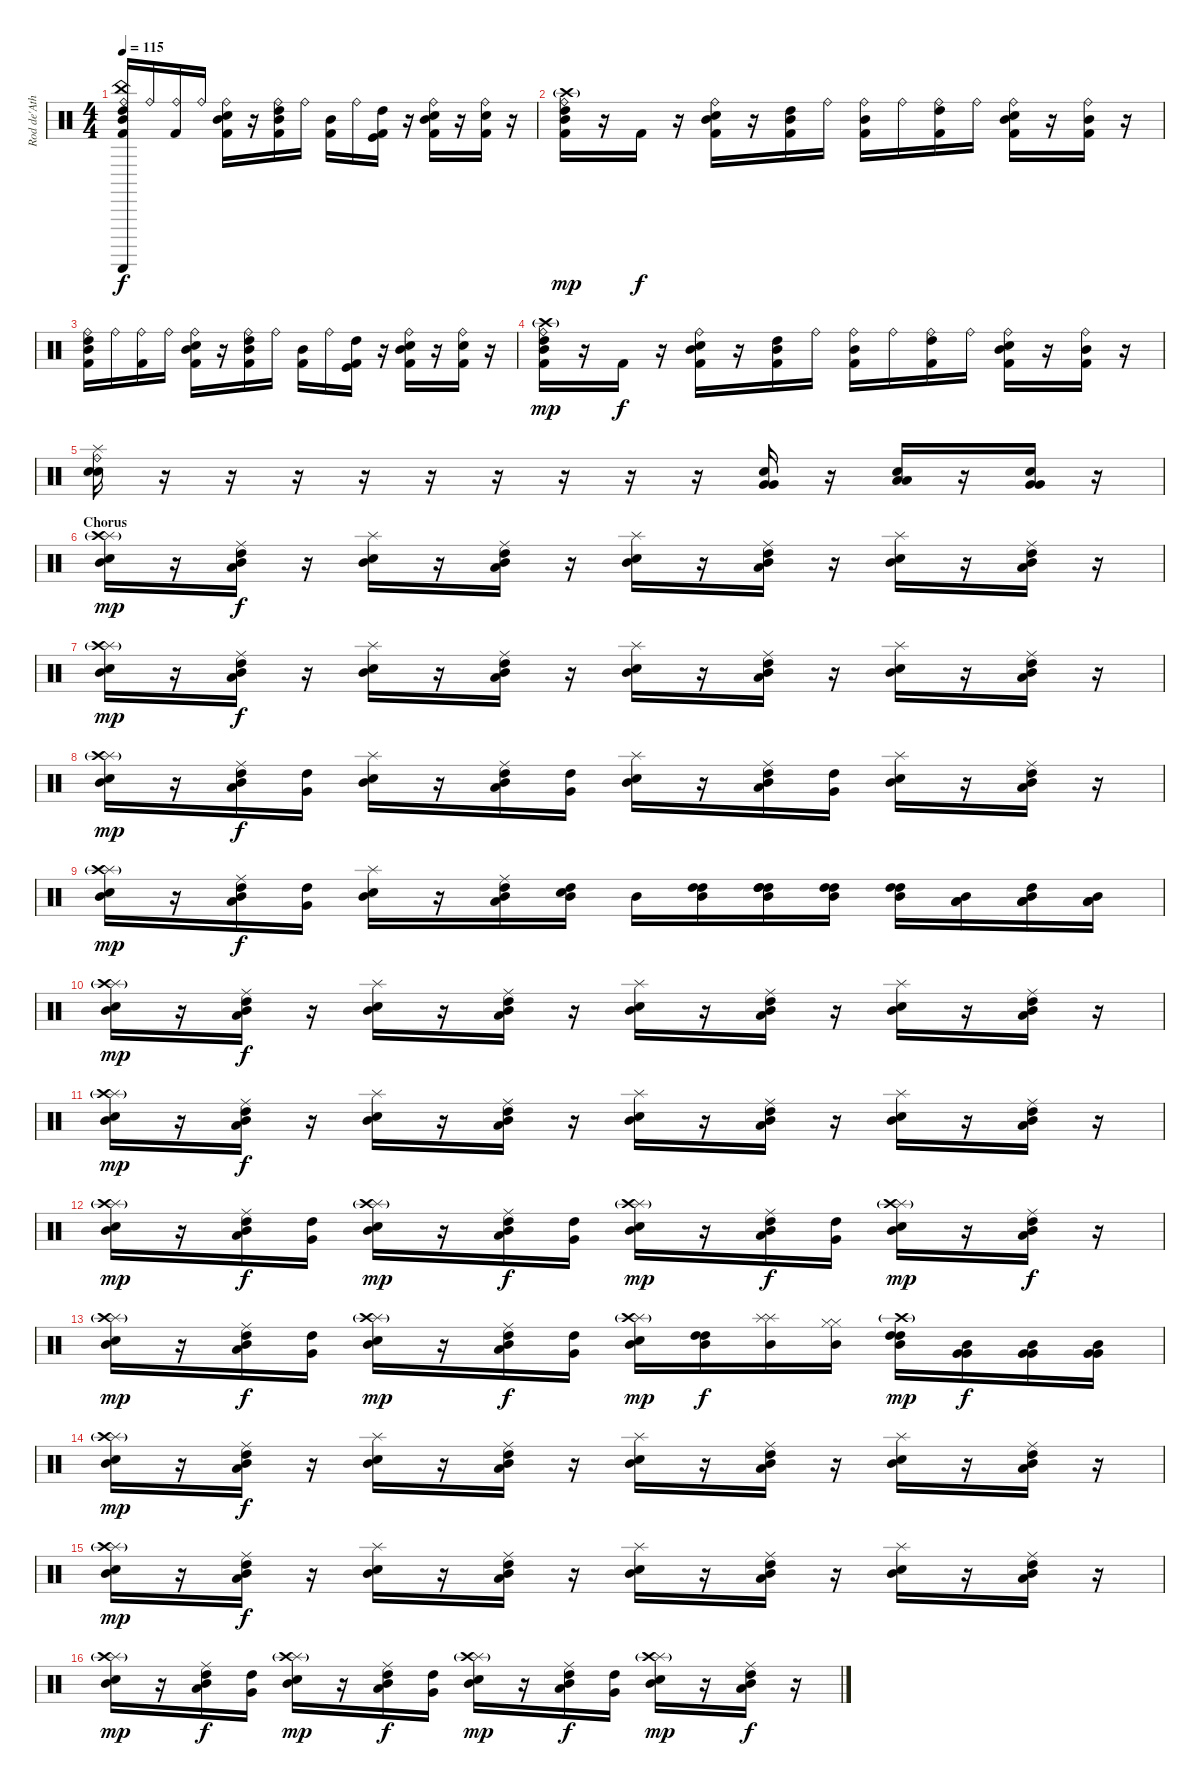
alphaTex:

\track ("Rod de'Ath" "Rod de'Ath") {instrument percussion}
\staff {score}
\articulation defaults
\ts (4 4)
\tempo 115
\clef neutral
\ks c
("Ride (bell)" "China (hit)" "High Tom (hit)" "Mid Tom (hit)" "Kick (hit) 2" "Guiro (scrap-return)").16{dy f} "Ride (bell)".16 ("Ride (bell)" "Kick (hit) 2").16 "Ride (bell)".16 ("Ride (bell)" "Snare (hit) 2" "Mid Tom (hit)" "Kick (hit) 2").16 r.16 ("Ride (bell)" "High Tom (hit)" "Mid Tom (hit)" "Kick (hit) 2").16 "Ride (bell)".16 ("Mid Tom (hit)" "Kick (hit) 2").16 "Ride (bell)".16 ("Kick (hit)" "High Tom (hit)" "Kick (hit) 2").16 r.16 ("Ride (bell)" "Snare (hit) 2" "Mid Tom (hit)" "Kick (hit) 2").16 r.16 ("Ride (bell)" "Electric Snare (hit)" "Kick (hit) 2").16 r.16 |
("Ride (bell)" "High Tom (hit)" "Mid Tom (hit)" "Kick (hit) 2" "Crash high (hit)"{g}).16{dy mp} r.16 "Kick (hit) 2".16{dy f} r.16 ("Ride (bell)" "Snare (hit) 2" "Mid Tom (hit)" "Kick (hit) 2").16 r.16 ("High Tom (hit)" "Mid Tom (hit)" "Kick (hit) 2").16 "Ride (bell)".16 ("Ride (bell)" "Mid Tom (hit)" "Kick (hit) 2").16 "Ride (bell)".16 ("Ride (bell)" "High Tom (hit)" "Kick (hit) 2").16 "Ride (bell)".16 ("Ride (bell)" "Snare (hit) 2" "Mid Tom (hit)" "Kick (hit) 2").16 r.16 ("Ride (bell)" "Mid Tom (hit)" "Kick (hit) 2").16 r.16 |
("Ride (bell)" "High Tom (hit)" "Mid Tom (hit)" "Kick (hit) 2").16 "Ride (bell)".16 ("Ride (bell)" "Kick (hit) 2").16 "Ride (bell)".16 ("Ride (bell)" "Snare (hit) 2" "Mid Tom (hit)" "Kick (hit) 2").16 r.16 ("Ride (bell)" "High Tom (hit)" "Mid Tom (hit)" "Kick (hit) 2").16 "Ride (bell)".16 ("Mid Tom (hit)" "Kick (hit) 2").16 "Ride (bell)".16 ("Kick (hit)" "High Tom (hit)" "Kick (hit) 2").16 r.16 ("Ride (bell)" "Snare (hit) 2" "Mid Tom (hit)" "Kick (hit) 2").16 r.16 ("Ride (bell)" "Electric Snare (hit)" "Kick (hit) 2").16 r.16 |
("Ride (bell)" "High Tom (hit)" "Mid Tom (hit)" "Kick (hit) 2" "Crash high (hit)"{g}).16{dy mp} r.16 "Kick (hit) 2".16{dy f} r.16 ("Ride (bell)" "Snare (hit) 2" "Mid Tom (hit)" "Kick (hit) 2").16 r.16 ("High Tom (hit)" "Mid Tom (hit)" "Kick (hit) 2").16 "Ride (bell)".16 ("Ride (bell)" "Mid Tom (hit)" "Kick (hit) 2").16 "Ride (bell)".16 ("Ride (bell)" "High Tom (hit)" "Kick (hit) 2").16 "Ride (bell)".16 ("Ride (bell)" "Snare (hit) 2" "Mid Tom (hit)" "Kick (hit) 2").16 r.16 ("Ride (bell)" "Mid Tom (hit)" "Kick (hit) 2").16 r.16 |
("Ride (bell)" "Electric Snare (hit)" "Snare (hit) 2" "Splash (hit)").16 r.16 r.16 r.16 r.16 r.16 r.16 r.16 r.16 r.16 ("Snare (hit) 2" "Very Low Tom (hit)" "Very Low Tom (hit)").16 r.16 ("Electric Snare (hit)" "Low Tom (hit)" "Low Tom (hit)").16 r.16 ("Snare (hit) 2" "Very Low Tom (hit)" "Very Low Tom (hit)").16 r.16 |
\section ("" "Chorus")
("Splash (hit)" "Snare (hit) 2" "Crash high (hit)"{g} "Mid Tom (hit)").16{dy mp} r.16 ("Ride (middle)" "Low Tom (hit)" "High Tom (hit)" "Mid Tom (hit)").16{dy f} r.16 ("Splash (hit)" "Snare (hit) 2" "Mid Tom (hit)").16 r.16 ("Ride (middle)" "Low Tom (hit)" "High Tom (hit)" "Mid Tom (hit)").16 r.16 ("Splash (hit)" "Snare (hit) 2" "Mid Tom (hit)").16 r.16 ("Ride (middle)" "Low Tom (hit)" "High Tom (hit)" "Mid Tom (hit)").16 r.16 ("Splash (hit)" "Snare (hit) 2" "Mid Tom (hit)").16 r.16 ("Ride (middle)" "Low Tom (hit)" "High Tom (hit)" "Mid Tom (hit)").16 r.16 |
("Splash (hit)" "Snare (hit) 2" "Crash high (hit)"{g} "Mid Tom (hit)").16{dy mp} r.16 ("Ride (middle)" "Low Tom (hit)" "High Tom (hit)" "Mid Tom (hit)").16{dy f} r.16 ("Splash (hit)" "Snare (hit) 2" "Mid Tom (hit)").16 r.16 ("Ride (middle)" "Low Tom (hit)" "High Tom (hit)" "Mid Tom (hit)").16 r.16 ("Splash (hit)" "Snare (hit) 2" "Mid Tom (hit)").16 r.16 ("Ride (middle)" "Low Tom (hit)" "High Tom (hit)" "Mid Tom (hit)").16 r.16 ("Splash (hit)" "Snare (hit) 2" "Mid Tom (hit)").16 r.16 ("Ride (middle)" "Low Tom (hit)" "High Tom (hit)" "Mid Tom (hit)").16 r.16 |
("Splash (hit)" "Snare (hit) 2" "Crash high (hit)"{g} "Mid Tom (hit)").16{dy mp} r.16 ("Ride (middle)" "Low Tom (hit)" "High Tom (hit)" "Mid Tom (hit)").16{dy f} ("Very Low Tom (hit)" "High Tom (hit)").16 ("Splash (hit)" "Snare (hit) 2" "Mid Tom (hit)").16 r.16 ("Ride (middle)" "Low Tom (hit)" "High Tom (hit)" "Mid Tom (hit)").16 ("Very Low Tom (hit)" "High Tom (hit)").16 ("Splash (hit)" "Snare (hit) 2" "Mid Tom (hit)").16 r.16 ("Ride (middle)" "Low Tom (hit)" "High Tom (hit)" "Mid Tom (hit)").16 ("Very Low Tom (hit)" "High Tom (hit)").16 ("Splash (hit)" "Snare (hit) 2" "Mid Tom (hit)").16 r.16 ("Ride (middle)" "Low Tom (hit)" "High Tom (hit)" "Mid Tom (hit)").16 r.16 |
("Splash (hit)" "Snare (hit) 2" "Crash high (hit)"{g} "Mid Tom (hit)").16{dy mp} r.16 ("Ride (middle)" "Low Tom (hit)" "High Tom (hit)" "Mid Tom (hit)").16{dy f} ("High Tom (hit)" "Very Low Tom (hit)").16 ("Splash (hit)" "Snare (hit) 2" "Mid Tom (hit)").16 r.16 ("Ride (middle)" "Low Tom (hit)" "High Tom (hit)" "Mid Tom (hit)").16 ("Electric Snare (hit)" "High Tom (hit)" "Mid Tom (hit)").16 "Mid Tom (hit)".16 ("High Tom (hit)" "High Tom (hit)" "Mid Tom (hit)").16 ("High Tom (hit)" "High Tom (hit)" "High Tom (hit)" "Mid Tom (hit)").16 ("High Tom (hit)" "High Tom (hit)" "Mid Tom (hit)").16 ("High Tom (hit)" "High Tom (hit)" "Mid Tom (hit)").16 ("Low Tom (hit)" "Low Tom (hit)" "Mid Tom (hit)").16 ("Low Tom (hit)" "Low Tom (hit)" "High Tom (hit)" "Mid Tom (hit)").16 ("Low Tom (hit)" "Low Tom (hit)" "Mid Tom (hit)").16 |
("Splash (hit)" "Snare (hit) 2" "Crash high (hit)"{g} "Mid Tom (hit)").16{dy mp} r.16 ("Ride (middle)" "Low Tom (hit)" "High Tom (hit)" "Mid Tom (hit)").16{dy f} r.16 ("Splash (hit)" "Snare (hit) 2" "Mid Tom (hit)").16 r.16 ("Ride (middle)" "Low Tom (hit)" "High Tom (hit)" "Mid Tom (hit)").16 r.16 ("Splash (hit)" "Snare (hit) 2" "Mid Tom (hit)").16 r.16 ("Ride (middle)" "Low Tom (hit)" "High Tom (hit)" "Mid Tom (hit)").16 r.16 ("Splash (hit)" "Snare (hit) 2" "Mid Tom (hit)").16 r.16 ("Ride (middle)" "Low Tom (hit)" "High Tom (hit)" "Mid Tom (hit)").16 r.16 |
("Splash (hit)" "Snare (hit) 2" "Crash high (hit)"{g} "Mid Tom (hit)").16{dy mp} r.16 ("Ride (middle)" "Low Tom (hit)" "High Tom (hit)" "Mid Tom (hit)").16{dy f} r.16 ("Splash (hit)" "Snare (hit) 2" "Mid Tom (hit)").16 r.16 ("Ride (middle)" "Low Tom (hit)" "High Tom (hit)" "Mid Tom (hit)").16 r.16 ("Splash (hit)" "Snare (hit) 2" "Mid Tom (hit)").16 r.16 ("Ride (middle)" "Low Tom (hit)" "High Tom (hit)" "Mid Tom (hit)").16 r.16 ("Splash (hit)" "Snare (hit) 2" "Mid Tom (hit)").16 r.16 ("Ride (middle)" "Low Tom (hit)" "High Tom (hit)" "Mid Tom (hit)").16 r.16 |
("Splash (hit)" "Snare (hit) 2" "Crash high (hit)"{g} "Mid Tom (hit)").16{dy mp} r.16 ("Ride (middle)" "Low Tom (hit)" "High Tom (hit)" "Mid Tom (hit)").16{dy f} ("Very Low Tom (hit)" "High Tom (hit)").16 ("Splash (hit)" "Snare (hit) 2" "Crash high (hit)"{g} "Mid Tom (hit)").16{dy mp} r.16 ("Ride (middle)" "Low Tom (hit)" "High Tom (hit)" "Mid Tom (hit)").16{dy f} ("Very Low Tom (hit)" "High Tom (hit)").16 ("Splash (hit)" "Snare (hit) 2" "Crash high (hit)"{g} "Mid Tom (hit)").16{dy mp} r.16 ("Ride (middle)" "Low Tom (hit)" "High Tom (hit)" "Mid Tom (hit)").16{dy f} ("Very Low Tom (hit)" "High Tom (hit)").16 ("Splash (hit)" "Snare (hit) 2" "Crash high (hit)"{g} "Mid Tom (hit)").16{dy mp} r.16 ("Ride (middle)" "Low Tom (hit)" "High Tom (hit)" "Mid Tom (hit)").16{dy f} r.16 |
("Splash (hit)" "Snare (hit) 2" "Crash high (hit)"{g} "Mid Tom (hit)").16{dy mp} r.16 ("Ride (middle)" "Low Tom (hit)" "High Tom (hit)" "Mid Tom (hit)").16{dy f} ("Very Low Tom (hit)" "High Tom (hit)").16 ("Splash (hit)" "Snare (hit) 2" "Crash high (hit)"{g} "Mid Tom (hit)").16{dy mp} r.16 ("Ride (middle)" "Low Tom (hit)" "High Tom (hit)" "Mid Tom (hit)").16{dy f} ("Very Low Tom (hit)" "High Tom (hit)").16 ("Splash (hit)" "Snare (hit) 2" "Crash high (hit)"{g} "Mid Tom (hit)").16{dy mp} ("High Tom (hit)" "High Tom (hit)" "Mid Tom (hit)").16{dy f} ("Splash (hit)" "Splash (hit)" "Mid Tom (hit)").16 ("Hi-Hat (closed)" "Hi-Hat (closed)" "Mid Tom (hit)").16 ("High Tom (hit)" "High Tom (hit)" "Crash high (hit)"{g} "Mid Tom (hit)").16{dy mp} ("Very Low Tom (hit)" "Very Low Tom (hit)" "Mid Tom (hit)").16{dy f} ("Very Low Tom (hit)" "Very Low Tom (hit)" "Mid Tom (hit)").16 ("Very Low Tom (hit)" "Very Low Tom (hit)" "Mid Tom (hit)").16 |
("Splash (hit)" "Snare (hit) 2" "Crash high (hit)"{g} "Mid Tom (hit)").16{dy mp} r.16 ("Ride (middle)" "Low Tom (hit)" "High Tom (hit)" "Mid Tom (hit)").16{dy f} r.16 ("Splash (hit)" "Snare (hit) 2" "Mid Tom (hit)").16 r.16 ("Ride (middle)" "Low Tom (hit)" "High Tom (hit)" "Mid Tom (hit)").16 r.16 ("Splash (hit)" "Snare (hit) 2" "Mid Tom (hit)").16 r.16 ("Ride (middle)" "Low Tom (hit)" "High Tom (hit)" "Mid Tom (hit)").16 r.16 ("Splash (hit)" "Snare (hit) 2" "Mid Tom (hit)").16 r.16 ("Ride (middle)" "Low Tom (hit)" "High Tom (hit)" "Mid Tom (hit)").16 r.16 |
("Splash (hit)" "Snare (hit) 2" "Crash high (hit)"{g} "Mid Tom (hit)").16{dy mp} r.16 ("Ride (middle)" "Low Tom (hit)" "High Tom (hit)" "Mid Tom (hit)").16{dy f} r.16 ("Splash (hit)" "Snare (hit) 2" "Mid Tom (hit)").16 r.16 ("Ride (middle)" "Low Tom (hit)" "High Tom (hit)" "Mid Tom (hit)").16 r.16 ("Splash (hit)" "Snare (hit) 2" "Mid Tom (hit)").16 r.16 ("Ride (middle)" "Low Tom (hit)" "High Tom (hit)" "Mid Tom (hit)").16 r.16 ("Splash (hit)" "Snare (hit) 2" "Mid Tom (hit)").16 r.16 ("Ride (middle)" "Low Tom (hit)" "High Tom (hit)" "Mid Tom (hit)").16 r.16 |
("Splash (hit)" "Snare (hit) 2" "Crash high (hit)"{g} "Mid Tom (hit)").16{dy mp} r.16 ("Ride (middle)" "Low Tom (hit)" "High Tom (hit)" "Mid Tom (hit)").16{dy f} ("Very Low Tom (hit)" "High Tom (hit)").16 ("Splash (hit)" "Snare (hit) 2" "Crash high (hit)"{g} "Mid Tom (hit)").16{dy mp} r.16 ("Ride (middle)" "Low Tom (hit)" "High Tom (hit)" "Mid Tom (hit)").16{dy f} ("Very Low Tom (hit)" "High Tom (hit)").16 ("Splash (hit)" "Snare (hit) 2" "Crash high (hit)"{g} "Mid Tom (hit)").16{dy mp} r.16 ("Ride (middle)" "Low Tom (hit)" "High Tom (hit)" "Mid Tom (hit)").16{dy f} ("Very Low Tom (hit)" "High Tom (hit)").16 ("Splash (hit)" "Snare (hit) 2" "Crash high (hit)"{g} "Mid Tom (hit)").16{dy mp} r.16 ("Ride (middle)" "Low Tom (hit)" "High Tom (hit)" "Mid Tom (hit)").16{dy f} r.16
